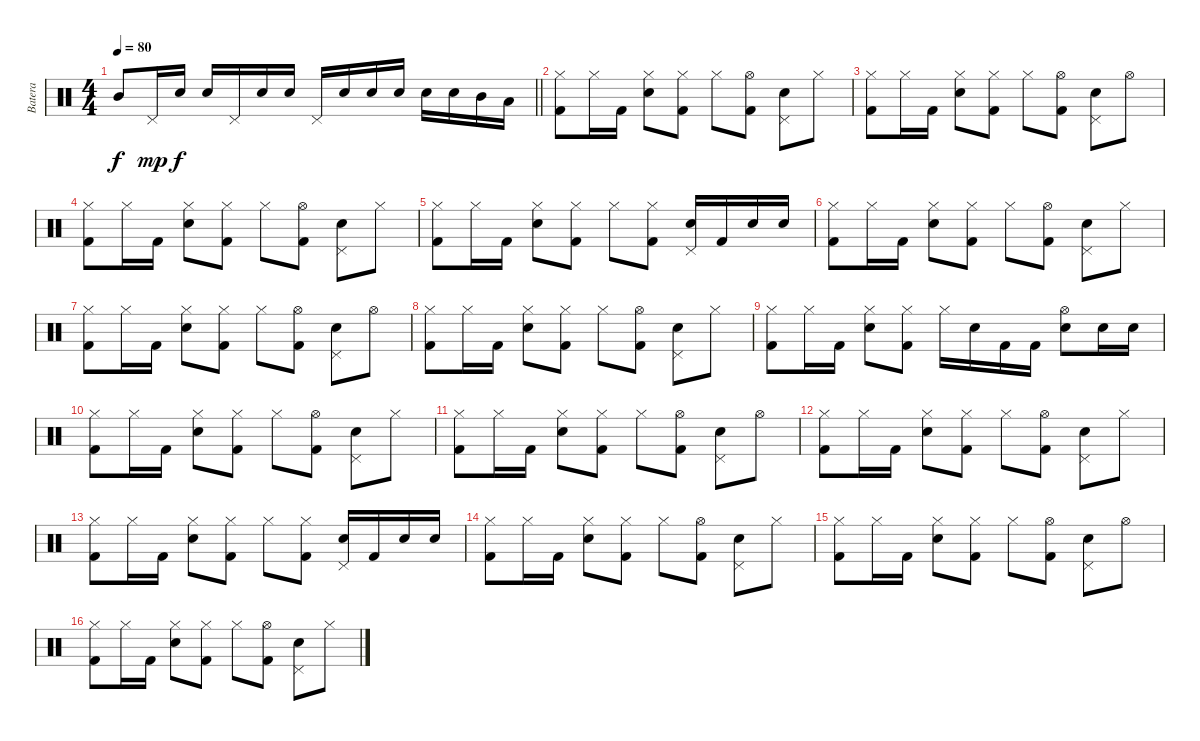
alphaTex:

\track ("Batera" "Batera") {instrument percussion}
\staff {score}
\articulation defaults
\ts (4 4)
\tempo 80
\clef neutral
\barLineRight lightlight
\ks c "Mid Tom (hit)".8{dy f} "Pedal Hi-Hat (hit)".16{dy mp} "Electric Snare (hit)".16{dy f} "Electric Snare (hit)".16 "Pedal Hi-Hat (hit)".16 "Electric Snare (hit)".16 "Electric Snare (hit)".16 "Pedal Hi-Hat (hit)".16 "Electric Snare (hit)".16 "Electric Snare (hit)".16 "Electric Snare (hit)".16 "Electric Snare (hit)".16 "Electric Snare (hit)".16 "Mid Tom (hit)".16 "Low Tom (hit)".16
|
("Hi-Hat (closed)" "Kick (hit) 2").8 "Hi-Hat (closed)".16 "Kick (hit) 2".16 ("Hi-Hat (closed)" "Electric Snare (hit)").8 ("Hi-Hat (closed)" "Kick (hit) 2").8 "Hi-Hat (closed)".8 ("Hi-Hat (open)" "Kick (hit) 2").8 ("Pedal Hi-Hat (hit)" "Electric Snare (hit)").8 "Hi-Hat (closed)".8 |
("Hi-Hat (closed)" "Kick (hit) 2").8 "Hi-Hat (closed)".16 "Kick (hit) 2".16 ("Hi-Hat (closed)" "Electric Snare (hit)").8 ("Hi-Hat (closed)" "Kick (hit) 2").8 "Hi-Hat (closed)".8 ("Hi-Hat (open)" "Kick (hit) 2").8 ("Pedal Hi-Hat (hit)" "Electric Snare (hit)").8 "Hi-Hat (open)".8 |
("Hi-Hat (closed)" "Kick (hit) 2").8 "Hi-Hat (closed)".16 "Kick (hit) 2".16 ("Hi-Hat (closed)" "Electric Snare (hit)").8 ("Hi-Hat (closed)" "Kick (hit) 2").8 "Hi-Hat (closed)".8 ("Hi-Hat (open)" "Kick (hit) 2").8 ("Pedal Hi-Hat (hit)" "Electric Snare (hit)").8 "Hi-Hat (closed)".8 |
("Hi-Hat (closed)" "Kick (hit) 2").8 "Hi-Hat (closed)".16 "Kick (hit) 2".16 ("Hi-Hat (closed)" "Electric Snare (hit)").8 ("Hi-Hat (closed)" "Kick (hit) 2").8 "Hi-Hat (closed)".8 ("Hi-Hat (closed)" "Kick (hit) 2").8 ("Pedal Hi-Hat (hit)" "Electric Snare (hit)").16 "Kick (hit) 2".16 "Electric Snare (hit)".16 "Electric Snare (hit)".16 |
("Hi-Hat (closed)" "Kick (hit) 2").8 "Hi-Hat (closed)".16 "Kick (hit) 2".16 ("Hi-Hat (closed)" "Electric Snare (hit)").8 ("Hi-Hat (closed)" "Kick (hit) 2").8 "Hi-Hat (closed)".8 ("Hi-Hat (open)" "Kick (hit) 2").8 ("Pedal Hi-Hat (hit)" "Electric Snare (hit)").8 "Hi-Hat (closed)".8 |
("Hi-Hat (closed)" "Kick (hit) 2").8 "Hi-Hat (closed)".16 "Kick (hit) 2".16 ("Hi-Hat (closed)" "Electric Snare (hit)").8 ("Hi-Hat (closed)" "Kick (hit) 2").8 "Hi-Hat (closed)".8 ("Hi-Hat (open)" "Kick (hit) 2").8 ("Pedal Hi-Hat (hit)" "Electric Snare (hit)").8 "Hi-Hat (open)".8 |
("Hi-Hat (closed)" "Kick (hit) 2").8 "Hi-Hat (closed)".16 "Kick (hit) 2".16 ("Hi-Hat (closed)" "Electric Snare (hit)").8 ("Hi-Hat (closed)" "Kick (hit) 2").8 "Hi-Hat (closed)".8 ("Hi-Hat (open)" "Kick (hit) 2").8 ("Pedal Hi-Hat (hit)" "Electric Snare (hit)").8 "Hi-Hat (closed)".8 |
("Hi-Hat (closed)" "Kick (hit) 2").8 "Hi-Hat (closed)".16 "Kick (hit) 2".16 ("Hi-Hat (closed)" "Electric Snare (hit)").8 ("Hi-Hat (closed)" "Kick (hit) 2").8 "Hi-Hat (closed)".16 "Electric Snare (hit)".16 "Kick (hit) 2".16 "Kick (hit) 2".16 ("Hi-Hat (open)" "Electric Snare (hit)").8 "Electric Snare (hit)".16 "Electric Snare (hit)".16 |
("Hi-Hat (closed)" "Kick (hit) 2").8 "Hi-Hat (closed)".16 "Kick (hit) 2".16 ("Hi-Hat (closed)" "Electric Snare (hit)").8 ("Hi-Hat (closed)" "Kick (hit) 2").8 "Hi-Hat (closed)".8 ("Hi-Hat (open)" "Kick (hit) 2").8 ("Pedal Hi-Hat (hit)" "Electric Snare (hit)").8 "Hi-Hat (closed)".8 |
("Hi-Hat (closed)" "Kick (hit) 2").8 "Hi-Hat (closed)".16 "Kick (hit) 2".16 ("Hi-Hat (closed)" "Electric Snare (hit)").8 ("Hi-Hat (closed)" "Kick (hit) 2").8 "Hi-Hat (closed)".8 ("Hi-Hat (open)" "Kick (hit) 2").8 ("Pedal Hi-Hat (hit)" "Electric Snare (hit)").8 "Hi-Hat (open)".8 |
("Hi-Hat (closed)" "Kick (hit) 2").8 "Hi-Hat (closed)".16 "Kick (hit) 2".16 ("Hi-Hat (closed)" "Electric Snare (hit)").8 ("Hi-Hat (closed)" "Kick (hit) 2").8 "Hi-Hat (closed)".8 ("Hi-Hat (open)" "Kick (hit) 2").8 ("Pedal Hi-Hat (hit)" "Electric Snare (hit)").8 "Hi-Hat (closed)".8 |
("Hi-Hat (closed)" "Kick (hit) 2").8 "Hi-Hat (closed)".16 "Kick (hit) 2".16 ("Hi-Hat (closed)" "Electric Snare (hit)").8 ("Hi-Hat (closed)" "Kick (hit) 2").8 "Hi-Hat (closed)".8 ("Hi-Hat (closed)" "Kick (hit) 2").8 ("Pedal Hi-Hat (hit)" "Electric Snare (hit)").16 "Kick (hit) 2".16 "Electric Snare (hit)".16 "Electric Snare (hit)".16 |
("Hi-Hat (closed)" "Kick (hit) 2").8 "Hi-Hat (closed)".16 "Kick (hit) 2".16 ("Hi-Hat (closed)" "Electric Snare (hit)").8 ("Hi-Hat (closed)" "Kick (hit) 2").8 "Hi-Hat (closed)".8 ("Hi-Hat (open)" "Kick (hit) 2").8 ("Pedal Hi-Hat (hit)" "Electric Snare (hit)").8 "Hi-Hat (closed)".8 |
("Hi-Hat (closed)" "Kick (hit) 2").8 "Hi-Hat (closed)".16 "Kick (hit) 2".16 ("Hi-Hat (closed)" "Electric Snare (hit)").8 ("Hi-Hat (closed)" "Kick (hit) 2").8 "Hi-Hat (closed)".8 ("Hi-Hat (open)" "Kick (hit) 2").8 ("Pedal Hi-Hat (hit)" "Electric Snare (hit)").8 "Hi-Hat (open)".8 |
("Hi-Hat (closed)" "Kick (hit) 2").8 "Hi-Hat (closed)".16 "Kick (hit) 2".16 ("Hi-Hat (closed)" "Electric Snare (hit)").8 ("Hi-Hat (closed)" "Kick (hit) 2").8 "Hi-Hat (closed)".8 ("Hi-Hat (open)" "Kick (hit) 2").8 ("Pedal Hi-Hat (hit)" "Electric Snare (hit)").8 "Hi-Hat (closed)".8
